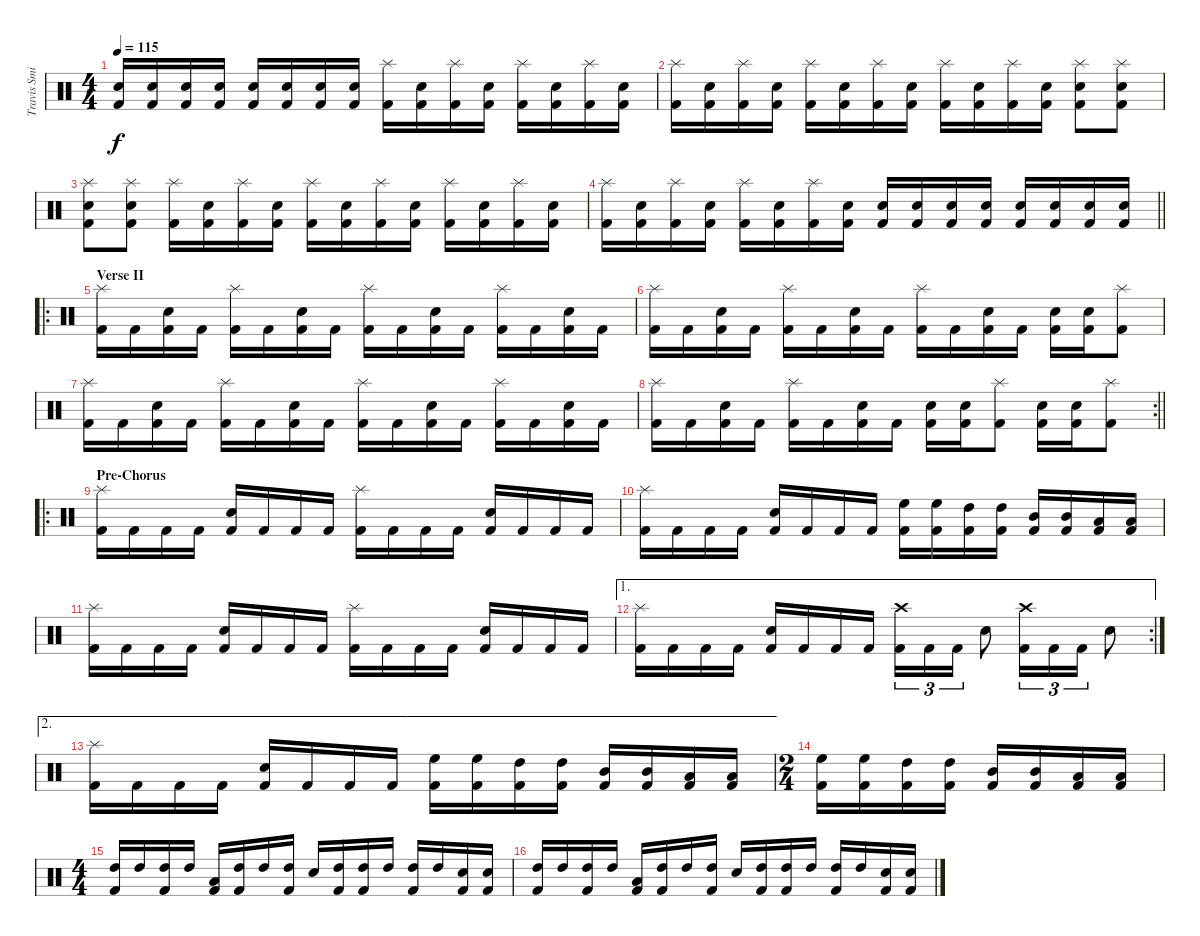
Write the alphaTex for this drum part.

\track ("Travis Smith" "Travis Smi") {instrument percussion}
\staff {score}
\articulation defaults
\ts (4 4)
\tempo 115
\clef neutral
\ks c
("Electric Snare (hit)" "Kick (hit) 2").16{dy f} ("Electric Snare (hit)" "Kick (hit) 2").16 ("Electric Snare (hit)" "Kick (hit) 2").16 ("Electric Snare (hit)" "Kick (hit) 2").16 ("Electric Snare (hit)" "Kick (hit) 2").16 ("Electric Snare (hit)" "Kick (hit) 2").16 ("Electric Snare (hit)" "Kick (hit) 2").16 ("Electric Snare (hit)" "Kick (hit) 2").16 ("Splash (hit)" "Kick (hit) 2").16 ("Electric Snare (hit)" "Kick (hit) 2").16 ("Splash (hit)" "Kick (hit) 2").16 ("Electric Snare (hit)" "Kick (hit) 2").16 ("Splash (hit)" "Kick (hit) 2").16 ("Electric Snare (hit)" "Kick (hit) 2").16 ("Splash (hit)" "Kick (hit) 2").16 ("Electric Snare (hit)" "Kick (hit) 2").16 |
("Splash (hit)" "Kick (hit) 2").16 ("Electric Snare (hit)" "Kick (hit) 2").16 ("Splash (hit)" "Kick (hit) 2").16 ("Electric Snare (hit)" "Kick (hit) 2").16 ("Splash (hit)" "Kick (hit) 2").16 ("Electric Snare (hit)" "Kick (hit) 2").16 ("Splash (hit)" "Kick (hit) 2").16 ("Electric Snare (hit)" "Kick (hit) 2").16 ("Splash (hit)" "Kick (hit) 2").16 ("Electric Snare (hit)" "Kick (hit) 2").16 ("Splash (hit)" "Kick (hit) 2").16 ("Electric Snare (hit)" "Kick (hit) 2").16 ("Splash (hit)" "Electric Snare (hit)" "Kick (hit) 2").8 ("Splash (hit)" "Electric Snare (hit)" "Kick (hit) 2").8 |
("Splash (hit)" "Electric Snare (hit)" "Kick (hit) 2").8 ("Splash (hit)" "Electric Snare (hit)" "Kick (hit) 2").8 ("Splash (hit)" "Kick (hit) 2").16 ("Electric Snare (hit)" "Kick (hit) 2").16 ("Splash (hit)" "Kick (hit) 2").16 ("Electric Snare (hit)" "Kick (hit) 2").16 ("Splash (hit)" "Kick (hit) 2").16 ("Electric Snare (hit)" "Kick (hit) 2").16 ("Splash (hit)" "Kick (hit) 2").16 ("Electric Snare (hit)" "Kick (hit) 2").16 ("Splash (hit)" "Kick (hit) 2").16 ("Electric Snare (hit)" "Kick (hit) 2").16 ("Splash (hit)" "Kick (hit) 2").16 ("Electric Snare (hit)" "Kick (hit) 2").16 |
\barLineRight lightlight
("Splash (hit)" "Kick (hit) 2").16 ("Electric Snare (hit)" "Kick (hit) 2").16 ("Splash (hit)" "Kick (hit) 2").16 ("Electric Snare (hit)" "Kick (hit) 2").16 ("Splash (hit)" "Kick (hit) 2").16 ("Electric Snare (hit)" "Kick (hit) 2").16 ("Splash (hit)" "Kick (hit) 2").16 ("Electric Snare (hit)" "Kick (hit) 2").16 ("Electric Snare (hit)" "Kick (hit) 2").16 ("Electric Snare (hit)" "Kick (hit) 2").16 ("Electric Snare (hit)" "Kick (hit) 2").16 ("Electric Snare (hit)" "Kick (hit) 2").16 ("Electric Snare (hit)" "Kick (hit) 2").16 ("Electric Snare (hit)" "Kick (hit) 2").16 ("Electric Snare (hit)" "Kick (hit) 2").16 ("Electric Snare (hit)" "Kick (hit) 2").16 |
\ro
\section ("" "Verse II")
("Splash (hit)" "Kick (hit) 2").16 "Kick (hit) 2".16 ("Electric Snare (hit)" "Kick (hit) 2").16 "Kick (hit) 2".16 ("Splash (hit)" "Kick (hit) 2").16 "Kick (hit) 2".16 ("Electric Snare (hit)" "Kick (hit) 2").16 "Kick (hit) 2".16 ("Splash (hit)" "Kick (hit) 2").16 "Kick (hit) 2".16 ("Electric Snare (hit)" "Kick (hit) 2").16 "Kick (hit) 2".16 ("Splash (hit)" "Kick (hit) 2").16 "Kick (hit) 2".16 ("Electric Snare (hit)" "Kick (hit) 2").16 "Kick (hit) 2".16 |
("Splash (hit)" "Kick (hit) 2").16 "Kick (hit) 2".16 ("Electric Snare (hit)" "Kick (hit) 2").16 "Kick (hit) 2".16 ("Splash (hit)" "Kick (hit) 2").16 "Kick (hit) 2".16 ("Electric Snare (hit)" "Kick (hit) 2").16 "Kick (hit) 2".16 ("Splash (hit)" "Kick (hit) 2").16 "Kick (hit) 2".16 ("Electric Snare (hit)" "Kick (hit) 2").16 "Kick (hit) 2".16 ("Electric Snare (hit)" "Kick (hit) 2").16 ("Electric Snare (hit)" "Kick (hit) 2").16 ("Splash (hit)" "Kick (hit) 2").8 |
("Splash (hit)" "Kick (hit) 2").16 "Kick (hit) 2".16 ("Electric Snare (hit)" "Kick (hit) 2").16 "Kick (hit) 2".16 ("Splash (hit)" "Kick (hit) 2").16 "Kick (hit) 2".16 ("Electric Snare (hit)" "Kick (hit) 2").16 "Kick (hit) 2".16 ("Splash (hit)" "Kick (hit) 2").16 "Kick (hit) 2".16 ("Electric Snare (hit)" "Kick (hit) 2").16 "Kick (hit) 2".16 ("Splash (hit)" "Kick (hit) 2").16 "Kick (hit) 2".16 ("Electric Snare (hit)" "Kick (hit) 2").16 "Kick (hit) 2".16 |
\rc 2
\barLineRight lightlight
("Splash (hit)" "Kick (hit) 2").16 "Kick (hit) 2".16 ("Electric Snare (hit)" "Kick (hit) 2").16 "Kick (hit) 2".16 ("Splash (hit)" "Kick (hit) 2").16 "Kick (hit) 2".16 ("Electric Snare (hit)" "Kick (hit) 2").16 "Kick (hit) 2".16 ("Electric Snare (hit)" "Kick (hit) 2").16 ("Electric Snare (hit)" "Kick (hit) 2").16 ("Splash (hit)" "Kick (hit) 2").8 ("Electric Snare (hit)" "Kick (hit) 2").16 ("Electric Snare (hit)" "Kick (hit) 2").16 ("Splash (hit)" "Kick (hit) 2").8 |
\ro
\section ("" "Pre-Chorus")
("Splash (hit)" "Kick (hit) 2").16 "Kick (hit) 2".16 "Kick (hit) 2".16 "Kick (hit) 2".16 ("Electric Snare (hit)" "Kick (hit) 2").16 "Kick (hit) 2".16 "Kick (hit) 2".16 "Kick (hit) 2".16 ("Splash (hit)" "Kick (hit) 2").16 "Kick (hit) 2".16 "Kick (hit) 2".16 "Kick (hit) 2".16 ("Electric Snare (hit)" "Kick (hit) 2").16 "Kick (hit) 2".16 "Kick (hit) 2".16 "Kick (hit) 2".16 |
("Splash (hit)" "Kick (hit) 2").16 "Kick (hit) 2".16 "Kick (hit) 2".16 "Kick (hit) 2".16 ("Electric Snare (hit)" "Kick (hit) 2").16 "Kick (hit) 2".16 "Kick (hit) 2".16 "Kick (hit) 2".16 ("High Floor Tom (hit)" "Kick (hit) 2").16 ("High Floor Tom (hit)" "Kick (hit) 2").16 ("High Tom (hit)" "Kick (hit) 2").16 ("High Tom (hit)" "Kick (hit) 2").16 ("Mid Tom (hit)" "Kick (hit) 2").16 ("Mid Tom (hit)" "Kick (hit) 2").16 ("Low Tom (hit)" "Kick (hit) 2").16 ("Low Tom (hit)" "Kick (hit) 2").16 |
("Splash (hit)" "Kick (hit) 2").16 "Kick (hit) 2".16 "Kick (hit) 2".16 "Kick (hit) 2".16 ("Electric Snare (hit)" "Kick (hit) 2").16 "Kick (hit) 2".16 "Kick (hit) 2".16 "Kick (hit) 2".16 ("Splash (hit)" "Kick (hit) 2").16 "Kick (hit) 2".16 "Kick (hit) 2".16 "Kick (hit) 2".16 ("Electric Snare (hit)" "Kick (hit) 2").16 "Kick (hit) 2".16 "Kick (hit) 2".16 "Kick (hit) 2".16 |
\ae 1
\rc 2
("Splash (hit)" "Kick (hit) 2").16 "Kick (hit) 2".16 "Kick (hit) 2".16 "Kick (hit) 2".16 ("Electric Snare (hit)" "Kick (hit) 2").16 "Kick (hit) 2".16 "Kick (hit) 2".16 "Kick (hit) 2".16 ("Crash high (hit)" "Kick (hit) 2").16{tu (3 2)} "Kick (hit) 2".16{tu (3 2)} "Kick (hit) 2".16{tu (3 2)} "Electric Snare (hit)".8 ("Crash high (hit)" "Kick (hit) 2").16{tu (3 2)} "Kick (hit) 2".16{tu (3 2)} "Kick (hit) 2".16{tu (3 2)} "Electric Snare (hit)".8 |
\ae 2
("Splash (hit)" "Kick (hit) 2").16 "Kick (hit) 2".16 "Kick (hit) 2".16 "Kick (hit) 2".16 ("Electric Snare (hit)" "Kick (hit) 2").16 "Kick (hit) 2".16 "Kick (hit) 2".16 "Kick (hit) 2".16 ("High Floor Tom (hit)" "Kick (hit) 2").16 ("High Floor Tom (hit)" "Kick (hit) 2").16 ("High Tom (hit)" "Kick (hit) 2").16 ("High Tom (hit)" "Kick (hit) 2").16 ("Mid Tom (hit)" "Kick (hit) 2").16 ("Mid Tom (hit)" "Kick (hit) 2").16 ("Low Tom (hit)" "Kick (hit) 2").16 ("Low Tom (hit)" "Kick (hit) 2").16 |
\ts (2 4)
("High Floor Tom (hit)" "Kick (hit) 2").16 ("High Floor Tom (hit)" "Kick (hit) 2").16 ("High Tom (hit)" "Kick (hit) 2").16 ("High Tom (hit)" "Kick (hit) 2").16 ("Mid Tom (hit)" "Kick (hit) 2").16 ("Mid Tom (hit)" "Kick (hit) 2").16 ("Low Tom (hit)" "Kick (hit) 2").16 ("Low Tom (hit)" "Kick (hit) 2").16 |
\ts (4 4)
("High Tom (hit)" "Kick (hit) 2").16 "High Tom (hit)".16 ("High Tom (hit)" "Kick (hit) 2").16 "High Tom (hit)".16 ("Low Tom (hit)" "Kick (hit) 2").16 ("High Tom (hit)" "Kick (hit) 2").16 "High Tom (hit)".16 ("High Tom (hit)" "Kick (hit) 2").16 "Electric Snare (hit)".16 ("High Tom (hit)" "Kick (hit) 2").16 ("High Tom (hit)" "Kick (hit) 2").16 "High Tom (hit)".16 ("High Tom (hit)" "Kick (hit) 2").16 "High Tom (hit)".16 ("Electric Snare (hit)" "Kick (hit) 2").16 ("Electric Snare (hit)" "Kick (hit) 2").16 |
("High Tom (hit)" "Kick (hit) 2").16 "High Tom (hit)".16 ("High Tom (hit)" "Kick (hit) 2").16 "High Tom (hit)".16 ("Low Tom (hit)" "Kick (hit) 2").16 ("High Tom (hit)" "Kick (hit) 2").16 "High Tom (hit)".16 ("High Tom (hit)" "Kick (hit) 2").16 "Electric Snare (hit)".16 ("High Tom (hit)" "Kick (hit) 2").16 ("High Tom (hit)" "Kick (hit) 2").16 "High Tom (hit)".16 ("High Tom (hit)" "Kick (hit) 2").16 "High Tom (hit)".16 ("Electric Snare (hit)" "Kick (hit) 2").16 ("Electric Snare (hit)" "Kick (hit) 2").16
